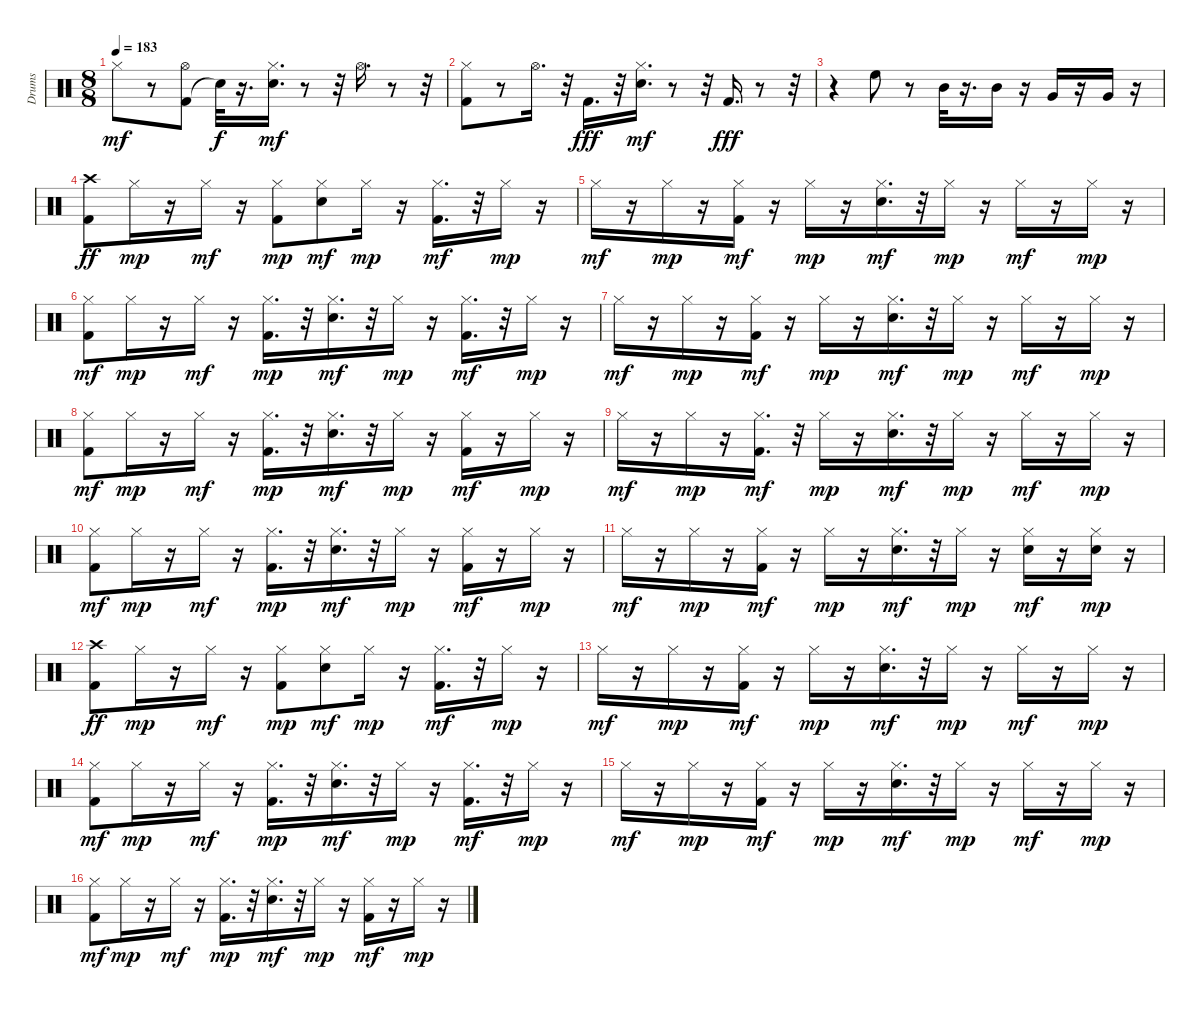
\track ("Drums" "Drums") {instrument percussion}
\staff {score}
\articulation defaults
\ts (8 8)
\tempo 183
\clef neutral
\ks c "Hi-Hat (closed)".8{dy mf}
r.8 ("Kick (hit) 2" "Hi-Hat (open)").8 "Snare (hit)"{t}.32{dy f} r.16{d} ("Snare (hit) 2" "Hi-Hat (closed)").16{d dy mf} r.8 r.32 "Hi-Hat (open)".16{d} r.8 r.32 |
("Kick (hit) 2" "Hi-Hat (closed)").8 r.8 "Hi-Hat (open)".16{d} r.32 "Kick (hit) 2".16{d dy fff} r.32 ("Snare (hit) 2" "Hi-Hat (closed)").16{d dy mf} r.8 r.32 "Kick (hit) 2".16{d dy fff} r.8 r.32 |
r.4 "High Floor Tom (hit)".8 r.8 "Mid Tom (hit)".32 r.16{d} "Mid Tom (hit)".16 r.16 "Very Low Tom (hit)".16 r.16 "Very Low Tom (hit)".16 r.16 |
("Kick (hit) 2" "Crash high (hit)").8{dy ff} "Hi-Hat (closed)".16{dy mp} r.16 "Hi-Hat (closed)".16{dy mf} r.16 ("Kick (hit) 2" "Hi-Hat (closed)").8{dy mp} ("Snare (hit) 2" "Hi-Hat (closed)").8{dy mf} "Hi-Hat (closed)".16{dy mp} r.16 ("Kick (hit) 2" "Hi-Hat (closed)").16{d dy mf} r.32 "Hi-Hat (closed)".16{dy mp} r.16 |
"Hi-Hat (closed)".16{dy mf} r.16 "Hi-Hat (closed)".16{dy mp} r.16 ("Kick (hit) 2" "Hi-Hat (closed)").16{dy mf} r.16 "Hi-Hat (closed)".16{dy mp} r.16 ("Snare (hit) 2" "Hi-Hat (closed)").16{d dy mf} r.32 "Hi-Hat (closed)".16{dy mp} r.16 "Hi-Hat (closed)".16{dy mf} r.16 "Hi-Hat (closed)".16{dy mp} r.16 |
("Kick (hit) 2" "Hi-Hat (closed)").8{dy mf} "Hi-Hat (closed)".16{dy mp} r.16 "Hi-Hat (closed)".16{dy mf} r.16 ("Kick (hit) 2" "Hi-Hat (closed)").16{d dy mp} r.32 ("Snare (hit) 2" "Hi-Hat (closed)").16{d dy mf} r.32 "Hi-Hat (closed)".16{dy mp} r.16 ("Kick (hit) 2" "Hi-Hat (closed)").16{d dy mf} r.32 "Hi-Hat (closed)".16{dy mp} r.16 |
"Hi-Hat (closed)".16{dy mf} r.16 "Hi-Hat (closed)".16{dy mp} r.16 ("Kick (hit) 2" "Hi-Hat (closed)").16{dy mf} r.16 "Hi-Hat (closed)".16{dy mp} r.16 ("Snare (hit) 2" "Hi-Hat (closed)").16{d dy mf} r.32 "Hi-Hat (closed)".16{dy mp} r.16 "Hi-Hat (closed)".16{dy mf} r.16 "Hi-Hat (closed)".16{dy mp} r.16 |
("Kick (hit) 2" "Hi-Hat (closed)").8{dy mf} "Hi-Hat (closed)".16{dy mp} r.16 "Hi-Hat (closed)".16{dy mf} r.16 ("Kick (hit) 2" "Hi-Hat (closed)").16{d dy mp} r.32 ("Snare (hit) 2" "Hi-Hat (closed)").16{d dy mf} r.32 "Hi-Hat (closed)".16{dy mp} r.16 ("Kick (hit) 2" "Hi-Hat (closed)").16{dy mf} r.16 "Hi-Hat (closed)".16{dy mp} r.16 |
"Hi-Hat (closed)".16{dy mf} r.16 "Hi-Hat (closed)".16{dy mp} r.16 ("Kick (hit) 2" "Hi-Hat (closed)").16{d dy mf} r.32 "Hi-Hat (closed)".16{dy mp} r.16 ("Snare (hit) 2" "Hi-Hat (closed)").16{d dy mf} r.32 "Hi-Hat (closed)".16{dy mp} r.16 "Hi-Hat (closed)".16{dy mf} r.16 "Hi-Hat (closed)".16{dy mp} r.16 |
("Kick (hit) 2" "Hi-Hat (closed)").8{dy mf} "Hi-Hat (closed)".16{dy mp} r.16 "Hi-Hat (closed)".16{dy mf} r.16 ("Kick (hit) 2" "Hi-Hat (closed)").16{d dy mp} r.32 ("Snare (hit) 2" "Hi-Hat (closed)").16{d dy mf} r.32 "Hi-Hat (closed)".16{dy mp} r.16 ("Kick (hit) 2" "Hi-Hat (closed)").16{dy mf} r.16 "Hi-Hat (closed)".16{dy mp} r.16 |
"Hi-Hat (closed)".16{dy mf} r.16 "Hi-Hat (closed)".16{dy mp} r.16 ("Kick (hit) 2" "Hi-Hat (closed)").16{dy mf} r.16 "Hi-Hat (closed)".16{dy mp} r.16 ("Snare (hit) 2" "Hi-Hat (closed)").16{d dy mf} r.32 "Hi-Hat (closed)".16{dy mp} r.16 ("Snare (hit) 2" "Hi-Hat (closed)").16{dy mf} r.16 ("Snare (hit) 2" "Hi-Hat (closed)").16{dy mp} r.16 |
("Kick (hit) 2" "Crash high (hit)").8{dy ff} "Hi-Hat (closed)".16{dy mp} r.16 "Hi-Hat (closed)".16{dy mf} r.16 ("Kick (hit) 2" "Hi-Hat (closed)").8{dy mp} ("Snare (hit) 2" "Hi-Hat (closed)").8{dy mf} "Hi-Hat (closed)".16{dy mp} r.16 ("Kick (hit) 2" "Hi-Hat (closed)").16{d dy mf} r.32 "Hi-Hat (closed)".16{dy mp} r.16 |
"Hi-Hat (closed)".16{dy mf} r.16 "Hi-Hat (closed)".16{dy mp} r.16 ("Kick (hit) 2" "Hi-Hat (closed)").16{dy mf} r.16 "Hi-Hat (closed)".16{dy mp} r.16 ("Snare (hit) 2" "Hi-Hat (closed)").16{d dy mf} r.32 "Hi-Hat (closed)".16{dy mp} r.16 "Hi-Hat (closed)".16{dy mf} r.16 "Hi-Hat (closed)".16{dy mp} r.16 |
("Kick (hit) 2" "Hi-Hat (closed)").8{dy mf} "Hi-Hat (closed)".16{dy mp} r.16 "Hi-Hat (closed)".16{dy mf} r.16 ("Kick (hit) 2" "Hi-Hat (closed)").16{d dy mp} r.32 ("Snare (hit) 2" "Hi-Hat (closed)").16{d dy mf} r.32 "Hi-Hat (closed)".16{dy mp} r.16 ("Kick (hit) 2" "Hi-Hat (closed)").16{d dy mf} r.32 "Hi-Hat (closed)".16{dy mp} r.16 |
"Hi-Hat (closed)".16{dy mf} r.16 "Hi-Hat (closed)".16{dy mp} r.16 ("Kick (hit) 2" "Hi-Hat (closed)").16{dy mf} r.16 "Hi-Hat (closed)".16{dy mp} r.16 ("Snare (hit) 2" "Hi-Hat (closed)").16{d dy mf} r.32 "Hi-Hat (closed)".16{dy mp} r.16 "Hi-Hat (closed)".16{dy mf} r.16 "Hi-Hat (closed)".16{dy mp} r.16 |
("Kick (hit) 2" "Hi-Hat (closed)").8{dy mf} "Hi-Hat (closed)".16{dy mp} r.16 "Hi-Hat (closed)".16{dy mf} r.16 ("Kick (hit) 2" "Hi-Hat (closed)").16{d dy mp} r.32 ("Snare (hit) 2" "Hi-Hat (closed)").16{d dy mf} r.32 "Hi-Hat (closed)".16{dy mp} r.16 ("Kick (hit) 2" "Hi-Hat (closed)").16{dy mf} r.16 "Hi-Hat (closed)".16{dy mp} r.16
